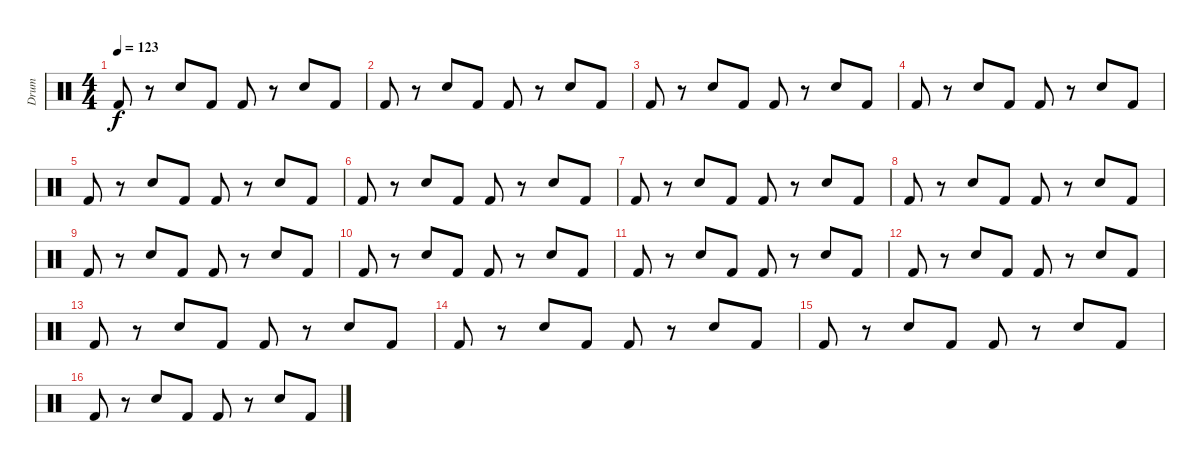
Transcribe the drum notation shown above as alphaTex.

\track ("Drum" "Drum") {instrument percussion}
\staff {score}
\articulation defaults
\ts (4 4)
\tempo 123
\clef neutral
\ks c "Kick (hit) 2".8{dy f}
r.8 "Electric Snare (hit)".8 "Kick (hit) 2".8 "Kick (hit) 2".8 r.8 "Electric Snare (hit)".8 "Kick (hit) 2".8 |
"Kick (hit) 2".8 r.8 "Electric Snare (hit)".8 "Kick (hit) 2".8 "Kick (hit) 2".8 r.8 "Electric Snare (hit)".8 "Kick (hit) 2".8 |
"Kick (hit) 2".8 r.8 "Electric Snare (hit)".8 "Kick (hit) 2".8 "Kick (hit) 2".8 r.8 "Electric Snare (hit)".8 "Kick (hit) 2".8 |
"Kick (hit) 2".8 r.8 "Electric Snare (hit)".8 "Kick (hit) 2".8 "Kick (hit) 2".8 r.8 "Electric Snare (hit)".8 "Kick (hit) 2".8 |
"Kick (hit) 2".8 r.8 "Electric Snare (hit)".8 "Kick (hit) 2".8 "Kick (hit) 2".8 r.8 "Electric Snare (hit)".8 "Kick (hit) 2".8 |
"Kick (hit) 2".8 r.8 "Electric Snare (hit)".8 "Kick (hit) 2".8 "Kick (hit) 2".8 r.8 "Electric Snare (hit)".8 "Kick (hit) 2".8 |
"Kick (hit) 2".8 r.8 "Electric Snare (hit)".8 "Kick (hit) 2".8 "Kick (hit) 2".8 r.8 "Electric Snare (hit)".8 "Kick (hit) 2".8 |
"Kick (hit) 2".8 r.8 "Electric Snare (hit)".8 "Kick (hit) 2".8 "Kick (hit) 2".8 r.8 "Electric Snare (hit)".8 "Kick (hit) 2".8 |
"Kick (hit) 2".8 r.8 "Electric Snare (hit)".8 "Kick (hit) 2".8 "Kick (hit) 2".8 r.8 "Electric Snare (hit)".8 "Kick (hit) 2".8 |
"Kick (hit) 2".8 r.8 "Electric Snare (hit)".8 "Kick (hit) 2".8 "Kick (hit) 2".8 r.8 "Electric Snare (hit)".8 "Kick (hit) 2".8 |
"Kick (hit) 2".8 r.8 "Electric Snare (hit)".8 "Kick (hit) 2".8 "Kick (hit) 2".8 r.8 "Electric Snare (hit)".8 "Kick (hit) 2".8 |
"Kick (hit) 2".8 r.8 "Electric Snare (hit)".8 "Kick (hit) 2".8 "Kick (hit) 2".8 r.8 "Electric Snare (hit)".8 "Kick (hit) 2".8 |
"Kick (hit) 2".8 r.8 "Electric Snare (hit)".8 "Kick (hit) 2".8 "Kick (hit) 2".8 r.8 "Electric Snare (hit)".8 "Kick (hit) 2".8 |
"Kick (hit) 2".8{volume 9} r.8 "Electric Snare (hit)".8 "Kick (hit) 2".8 "Kick (hit) 2".8 r.8 "Electric Snare (hit)".8 "Kick (hit) 2".8 |
"Kick (hit) 2".8{volume 7} r.8 "Electric Snare (hit)".8 "Kick (hit) 2".8 "Kick (hit) 2".8 r.8 "Electric Snare (hit)".8 "Kick (hit) 2".8 |
"Kick (hit) 2".8{volume 5} r.8 "Electric Snare (hit)".8 "Kick (hit) 2".8 "Kick (hit) 2".8 r.8 "Electric Snare (hit)".8 "Kick (hit) 2".8
